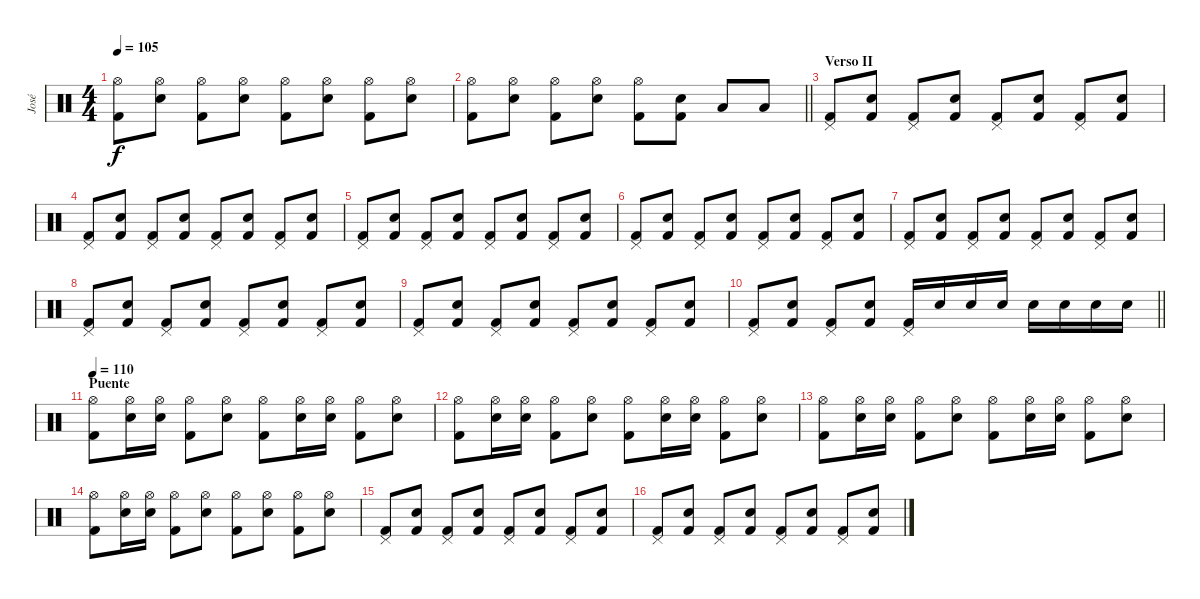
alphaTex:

\track ("José" "José") {instrument percussion}
\staff
\articulation defaults
\ts (4 4)
\tempo 105
\clef neutral
\ks c
("Hi-Hat (open)" "Kick (hit) 2").8{dy f} ("Hi-Hat (open)" "Electric Snare (hit)").8 ("Hi-Hat (open)" "Kick (hit) 2").8 ("Hi-Hat (open)" "Electric Snare (hit)").8 ("Hi-Hat (open)" "Kick (hit) 2").8 ("Hi-Hat (open)" "Electric Snare (hit)").8 ("Hi-Hat (open)" "Kick (hit) 2").8 ("Hi-Hat (open)" "Electric Snare (hit)").8 |
\barLineRight lightlight
("Hi-Hat (open)" "Kick (hit) 2").8 ("Hi-Hat (open)" "Electric Snare (hit)").8 ("Hi-Hat (open)" "Kick (hit) 2").8 ("Hi-Hat (open)" "Electric Snare (hit)").8 ("Hi-Hat (open)" "Kick (hit) 2").8 ("Electric Snare (hit)" "Kick (hit) 2").8 "Low Tom (hit)".8 "Low Tom (hit)".8 |
\section ("" "Verso II")
("Pedal Hi-Hat (hit)" "Kick (hit) 2").8 ("Electric Snare (hit)" "Kick (hit) 2").8 ("Pedal Hi-Hat (hit)" "Kick (hit) 2").8 ("Electric Snare (hit)" "Kick (hit) 2").8 ("Pedal Hi-Hat (hit)" "Kick (hit) 2").8 ("Electric Snare (hit)" "Kick (hit) 2").8 ("Pedal Hi-Hat (hit)" "Kick (hit) 2").8 ("Electric Snare (hit)" "Kick (hit) 2").8 |
("Pedal Hi-Hat (hit)" "Kick (hit) 2").8 ("Electric Snare (hit)" "Kick (hit) 2").8 ("Pedal Hi-Hat (hit)" "Kick (hit) 2").8 ("Electric Snare (hit)" "Kick (hit) 2").8 ("Pedal Hi-Hat (hit)" "Kick (hit) 2").8 ("Electric Snare (hit)" "Kick (hit) 2").8 ("Pedal Hi-Hat (hit)" "Kick (hit) 2").8 ("Electric Snare (hit)" "Kick (hit) 2").8 |
("Pedal Hi-Hat (hit)" "Kick (hit) 2").8 ("Electric Snare (hit)" "Kick (hit) 2").8 ("Pedal Hi-Hat (hit)" "Kick (hit) 2").8 ("Electric Snare (hit)" "Kick (hit) 2").8 ("Pedal Hi-Hat (hit)" "Kick (hit) 2").8 ("Electric Snare (hit)" "Kick (hit) 2").8 ("Pedal Hi-Hat (hit)" "Kick (hit) 2").8 ("Electric Snare (hit)" "Kick (hit) 2").8 |
("Pedal Hi-Hat (hit)" "Kick (hit) 2").8 ("Electric Snare (hit)" "Kick (hit) 2").8 ("Pedal Hi-Hat (hit)" "Kick (hit) 2").8 ("Electric Snare (hit)" "Kick (hit) 2").8 ("Pedal Hi-Hat (hit)" "Kick (hit) 2").8 ("Electric Snare (hit)" "Kick (hit) 2").8 ("Pedal Hi-Hat (hit)" "Kick (hit) 2").8 ("Electric Snare (hit)" "Kick (hit) 2").8 |
("Pedal Hi-Hat (hit)" "Kick (hit) 2").8 ("Electric Snare (hit)" "Kick (hit) 2").8 ("Pedal Hi-Hat (hit)" "Kick (hit) 2").8 ("Electric Snare (hit)" "Kick (hit) 2").8 ("Pedal Hi-Hat (hit)" "Kick (hit) 2").8 ("Electric Snare (hit)" "Kick (hit) 2").8 ("Pedal Hi-Hat (hit)" "Kick (hit) 2").8 ("Electric Snare (hit)" "Kick (hit) 2").8 |
("Pedal Hi-Hat (hit)" "Kick (hit) 2").8 ("Electric Snare (hit)" "Kick (hit) 2").8 ("Pedal Hi-Hat (hit)" "Kick (hit) 2").8 ("Electric Snare (hit)" "Kick (hit) 2").8 ("Pedal Hi-Hat (hit)" "Kick (hit) 2").8 ("Electric Snare (hit)" "Kick (hit) 2").8 ("Pedal Hi-Hat (hit)" "Kick (hit) 2").8 ("Electric Snare (hit)" "Kick (hit) 2").8 |
("Pedal Hi-Hat (hit)" "Kick (hit) 2").8 ("Electric Snare (hit)" "Kick (hit) 2").8 ("Pedal Hi-Hat (hit)" "Kick (hit) 2").8 ("Electric Snare (hit)" "Kick (hit) 2").8 ("Pedal Hi-Hat (hit)" "Kick (hit) 2").8 ("Electric Snare (hit)" "Kick (hit) 2").8 ("Pedal Hi-Hat (hit)" "Kick (hit) 2").8 ("Electric Snare (hit)" "Kick (hit) 2").8 |
\barLineRight lightlight
("Pedal Hi-Hat (hit)" "Kick (hit) 2").8 ("Electric Snare (hit)" "Kick (hit) 2").8 ("Pedal Hi-Hat (hit)" "Kick (hit) 2").8 ("Electric Snare (hit)" "Kick (hit) 2").8 ("Pedal Hi-Hat (hit)" "Kick (hit) 2").16 "Electric Snare (hit)".16 "Electric Snare (hit)".16 "Electric Snare (hit)".16 "Electric Snare (hit)".16 "Electric Snare (hit)".16 "Electric Snare (hit)".16 "Electric Snare (hit)".16 |
\section ("" "Puente")
\tempo 120
\tempo 110
("Hi-Hat (open)" "Kick (hit) 2").8 ("Hi-Hat (open)" "Electric Snare (hit)").16 ("Hi-Hat (open)" "Electric Snare (hit)").16 ("Hi-Hat (open)" "Kick (hit) 2").8 ("Hi-Hat (open)" "Electric Snare (hit)").8 ("Hi-Hat (open)" "Kick (hit) 2").8 ("Hi-Hat (open)" "Electric Snare (hit)").16 ("Hi-Hat (open)" "Electric Snare (hit)").16 ("Hi-Hat (open)" "Kick (hit) 2").8 ("Hi-Hat (open)" "Electric Snare (hit)").8 |
("Hi-Hat (open)" "Kick (hit) 2").8 ("Hi-Hat (open)" "Electric Snare (hit)").16 ("Hi-Hat (open)" "Electric Snare (hit)").16 ("Hi-Hat (open)" "Kick (hit) 2").8 ("Hi-Hat (open)" "Electric Snare (hit)").8 ("Hi-Hat (open)" "Kick (hit) 2").8 ("Hi-Hat (open)" "Electric Snare (hit)").16 ("Hi-Hat (open)" "Electric Snare (hit)").16 ("Hi-Hat (open)" "Kick (hit) 2").8 ("Hi-Hat (open)" "Electric Snare (hit)").8 |
("Hi-Hat (open)" "Kick (hit) 2").8 ("Hi-Hat (open)" "Electric Snare (hit)").16 ("Hi-Hat (open)" "Electric Snare (hit)").16 ("Hi-Hat (open)" "Kick (hit) 2").8 ("Hi-Hat (open)" "Electric Snare (hit)").8 ("Hi-Hat (open)" "Kick (hit) 2").8 ("Hi-Hat (open)" "Electric Snare (hit)").16 ("Hi-Hat (open)" "Electric Snare (hit)").16 ("Hi-Hat (open)" "Kick (hit) 2").8 ("Hi-Hat (open)" "Electric Snare (hit)").8 |
("Hi-Hat (open)" "Kick (hit) 2").8 ("Hi-Hat (open)" "Electric Snare (hit)").16 ("Hi-Hat (open)" "Electric Snare (hit)").16 ("Hi-Hat (open)" "Kick (hit) 2").8 ("Hi-Hat (open)" "Electric Snare (hit)").8 ("Hi-Hat (open)" "Kick (hit) 2").8 ("Hi-Hat (open)" "Electric Snare (hit)").8 ("Hi-Hat (open)" "Kick (hit) 2").8 ("Hi-Hat (open)" "Electric Snare (hit)").8 |
("Pedal Hi-Hat (hit)" "Kick (hit) 2").8 ("Electric Snare (hit)" "Kick (hit) 2").8 ("Pedal Hi-Hat (hit)" "Kick (hit) 2").8 ("Electric Snare (hit)" "Kick (hit) 2").8 ("Pedal Hi-Hat (hit)" "Kick (hit) 2").8 ("Electric Snare (hit)" "Kick (hit) 2").8 ("Pedal Hi-Hat (hit)" "Kick (hit) 2").8 ("Electric Snare (hit)" "Kick (hit) 2").8 |
("Pedal Hi-Hat (hit)" "Kick (hit) 2").8 ("Electric Snare (hit)" "Kick (hit) 2").8 ("Pedal Hi-Hat (hit)" "Kick (hit) 2").8 ("Electric Snare (hit)" "Kick (hit) 2").8 ("Pedal Hi-Hat (hit)" "Kick (hit) 2").8 ("Electric Snare (hit)" "Kick (hit) 2").8 ("Pedal Hi-Hat (hit)" "Kick (hit) 2").8 ("Electric Snare (hit)" "Kick (hit) 2").8
